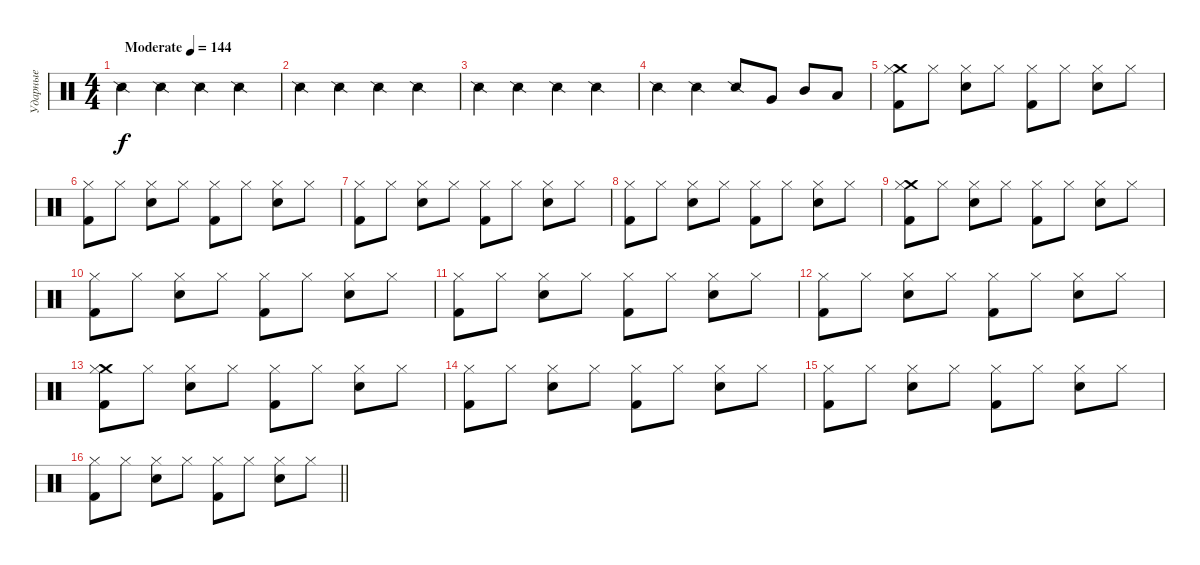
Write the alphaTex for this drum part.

\track ("Ударные" "Ударные") {instrument percussion}
\staff {score}
\articulation defaults
\ts (4 4)
\tempo (144 "Moderate")
\clef neutral
\ks c "Snare (side stick) 2".4{dy f} "Snare (side stick) 2".4 "Snare (side stick) 2".4 "Snare (side stick) 2".4
|
"Snare (side stick) 2".4 "Snare (side stick) 2".4 "Snare (side stick) 2".4 "Snare (side stick) 2".4 |
"Snare (side stick) 2".4 "Snare (side stick) 2".4 "Snare (side stick) 2".4 "Snare (side stick) 2".4 |
"Snare (side stick) 2".4 "Snare (side stick) 2".4 "Snare (side stick) 2".8 "Very Low Tom (hit)".8 "Mid Tom (hit)".8 "Low Tom (hit)".8 |
("Crash medium (hit)" "Hi-Hat (closed)" "Kick (hit) 2").8 "Hi-Hat (closed)".8 ("Hi-Hat (closed)" "Snare (hit) 2").8 "Hi-Hat (closed)".8 ("Hi-Hat (closed)" "Kick (hit) 2").8 "Hi-Hat (closed)".8 ("Hi-Hat (closed)" "Snare (hit) 2").8 "Hi-Hat (closed)".8 |
("Hi-Hat (closed)" "Kick (hit) 2").8 "Hi-Hat (closed)".8 ("Hi-Hat (closed)" "Snare (hit) 2").8 "Hi-Hat (closed)".8 ("Hi-Hat (closed)" "Kick (hit) 2").8 "Hi-Hat (closed)".8 ("Hi-Hat (closed)" "Snare (hit) 2").8 "Hi-Hat (closed)".8 |
("Hi-Hat (closed)" "Kick (hit) 2").8 "Hi-Hat (closed)".8 ("Hi-Hat (closed)" "Snare (hit) 2").8 "Hi-Hat (closed)".8 ("Hi-Hat (closed)" "Kick (hit) 2").8 "Hi-Hat (closed)".8 ("Hi-Hat (closed)" "Snare (hit) 2").8 "Hi-Hat (closed)".8 |
("Hi-Hat (closed)" "Kick (hit) 2").8 "Hi-Hat (closed)".8 ("Hi-Hat (closed)" "Snare (hit) 2").8 "Hi-Hat (closed)".8 ("Hi-Hat (closed)" "Kick (hit) 2").8 "Hi-Hat (closed)".8 ("Hi-Hat (closed)" "Snare (hit) 2").8 "Hi-Hat (closed)".8 |
("Crash medium (hit)" "Hi-Hat (closed)" "Kick (hit) 2").8 "Hi-Hat (closed)".8 ("Hi-Hat (closed)" "Snare (hit) 2").8 "Hi-Hat (closed)".8 ("Hi-Hat (closed)" "Kick (hit) 2").8 "Hi-Hat (closed)".8 ("Hi-Hat (closed)" "Snare (hit) 2").8 "Hi-Hat (closed)".8 |
("Hi-Hat (closed)" "Kick (hit) 2").8 "Hi-Hat (closed)".8 ("Hi-Hat (closed)" "Snare (hit) 2").8 "Hi-Hat (closed)".8 ("Hi-Hat (closed)" "Kick (hit) 2").8 "Hi-Hat (closed)".8 ("Hi-Hat (closed)" "Snare (hit) 2").8 "Hi-Hat (closed)".8 |
("Hi-Hat (closed)" "Kick (hit) 2").8 "Hi-Hat (closed)".8 ("Hi-Hat (closed)" "Snare (hit) 2").8 "Hi-Hat (closed)".8 ("Hi-Hat (closed)" "Kick (hit) 2").8 "Hi-Hat (closed)".8 ("Hi-Hat (closed)" "Snare (hit) 2").8 "Hi-Hat (closed)".8 |
("Hi-Hat (closed)" "Kick (hit) 2").8 "Hi-Hat (closed)".8 ("Hi-Hat (closed)" "Snare (hit) 2").8 "Hi-Hat (closed)".8 ("Hi-Hat (closed)" "Kick (hit) 2").8 "Hi-Hat (closed)".8 ("Hi-Hat (closed)" "Snare (hit) 2").8 "Hi-Hat (closed)".8 |
("Crash medium (hit)" "Hi-Hat (closed)" "Kick (hit) 2").8 "Hi-Hat (closed)".8 ("Hi-Hat (closed)" "Snare (hit) 2").8 "Hi-Hat (closed)".8 ("Hi-Hat (closed)" "Kick (hit) 2").8 "Hi-Hat (closed)".8 ("Hi-Hat (closed)" "Snare (hit) 2").8 "Hi-Hat (closed)".8 |
("Hi-Hat (closed)" "Kick (hit) 2").8 "Hi-Hat (closed)".8 ("Hi-Hat (closed)" "Snare (hit) 2").8 "Hi-Hat (closed)".8 ("Hi-Hat (closed)" "Kick (hit) 2").8 "Hi-Hat (closed)".8 ("Hi-Hat (closed)" "Snare (hit) 2").8 "Hi-Hat (closed)".8 |
("Hi-Hat (closed)" "Kick (hit) 2").8 "Hi-Hat (closed)".8 ("Hi-Hat (closed)" "Snare (hit) 2").8 "Hi-Hat (closed)".8 ("Hi-Hat (closed)" "Kick (hit) 2").8 "Hi-Hat (closed)".8 ("Hi-Hat (closed)" "Snare (hit) 2").8 "Hi-Hat (closed)".8 |
\barLineRight lightlight
("Hi-Hat (closed)" "Kick (hit) 2").8 "Hi-Hat (closed)".8 ("Hi-Hat (closed)" "Snare (hit) 2").8 "Hi-Hat (closed)".8 ("Hi-Hat (closed)" "Kick (hit) 2").8 "Hi-Hat (closed)".8 ("Hi-Hat (closed)" "Snare (hit) 2").8 "Hi-Hat (closed)".8
